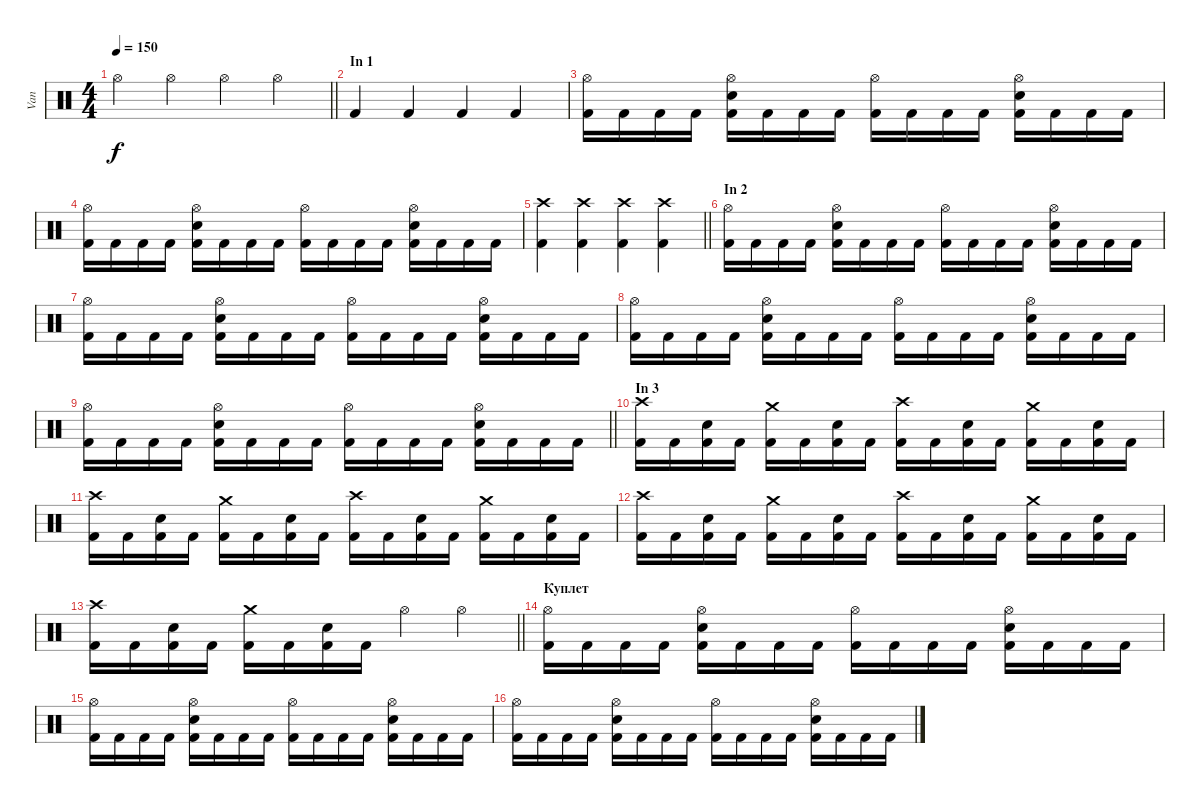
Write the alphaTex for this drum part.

\track ("Van" "Van") {instrument percussion}
\staff {score}
\articulation defaults
\ts (4 4)
\tempo 150
\clef neutral
\barLineRight lightlight
\ks c "Hi-Hat (open)".4{dy f} "Hi-Hat (open)".4 "Hi-Hat (open)".4 "Hi-Hat (open)".4
|
\section ("" "In 1")
"Kick (hit) 2".4 "Kick (hit) 2".4 "Kick (hit) 2".4 "Kick (hit) 2".4 |
("Kick (hit) 2" "Hi-Hat (open)").16 "Kick (hit) 2".16 "Kick (hit) 2".16 "Kick (hit) 2".16 ("Kick (hit) 2" "Hi-Hat (open)" "Electric Snare (hit)").16 "Kick (hit) 2".16 "Kick (hit) 2".16 "Kick (hit) 2".16 ("Kick (hit) 2" "Hi-Hat (open)").16 "Kick (hit) 2".16 "Kick (hit) 2".16 "Kick (hit) 2".16 ("Kick (hit) 2" "Hi-Hat (open)" "Electric Snare (hit)").16 "Kick (hit) 2".16 "Kick (hit) 2".16 "Kick (hit) 2".16 |
("Kick (hit) 2" "Hi-Hat (open)").16 "Kick (hit) 2".16 "Kick (hit) 2".16 "Kick (hit) 2".16 ("Kick (hit) 2" "Hi-Hat (open)" "Electric Snare (hit)").16 "Kick (hit) 2".16 "Kick (hit) 2".16 "Kick (hit) 2".16 ("Kick (hit) 2" "Hi-Hat (open)").16 "Kick (hit) 2".16 "Kick (hit) 2".16 "Kick (hit) 2".16 ("Kick (hit) 2" "Hi-Hat (open)" "Electric Snare (hit)").16 "Kick (hit) 2".16 "Kick (hit) 2".16 "Kick (hit) 2".16 |
\barLineRight lightlight
("Kick (hit) 2" "Crash high (hit)").4 ("Kick (hit) 2" "Crash high (hit)").4 ("Kick (hit) 2" "Crash high (hit)").4 ("Kick (hit) 2" "Crash high (hit)").4 |
\section ("" "In 2")
("Kick (hit) 2" "Hi-Hat (open)").16 "Kick (hit) 2".16 "Kick (hit) 2".16 "Kick (hit) 2".16 ("Kick (hit) 2" "Hi-Hat (open)" "Electric Snare (hit)").16 "Kick (hit) 2".16 "Kick (hit) 2".16 "Kick (hit) 2".16 ("Kick (hit) 2" "Hi-Hat (open)").16 "Kick (hit) 2".16 "Kick (hit) 2".16 "Kick (hit) 2".16 ("Kick (hit) 2" "Hi-Hat (open)" "Electric Snare (hit)").16 "Kick (hit) 2".16 "Kick (hit) 2".16 "Kick (hit) 2".16 |
("Kick (hit) 2" "Hi-Hat (open)").16 "Kick (hit) 2".16 "Kick (hit) 2".16 "Kick (hit) 2".16 ("Kick (hit) 2" "Hi-Hat (open)" "Electric Snare (hit)").16 "Kick (hit) 2".16 "Kick (hit) 2".16 "Kick (hit) 2".16 ("Kick (hit) 2" "Hi-Hat (open)").16 "Kick (hit) 2".16 "Kick (hit) 2".16 "Kick (hit) 2".16 ("Kick (hit) 2" "Hi-Hat (open)" "Electric Snare (hit)").16 "Kick (hit) 2".16 "Kick (hit) 2".16 "Kick (hit) 2".16 |
("Kick (hit) 2" "Hi-Hat (open)").16 "Kick (hit) 2".16 "Kick (hit) 2".16 "Kick (hit) 2".16 ("Kick (hit) 2" "Hi-Hat (open)" "Electric Snare (hit)").16 "Kick (hit) 2".16 "Kick (hit) 2".16 "Kick (hit) 2".16 ("Kick (hit) 2" "Hi-Hat (open)").16 "Kick (hit) 2".16 "Kick (hit) 2".16 "Kick (hit) 2".16 ("Kick (hit) 2" "Hi-Hat (open)" "Electric Snare (hit)").16 "Kick (hit) 2".16 "Kick (hit) 2".16 "Kick (hit) 2".16 |
\barLineRight lightlight
("Kick (hit) 2" "Hi-Hat (open)").16 "Kick (hit) 2".16 "Kick (hit) 2".16 "Kick (hit) 2".16 ("Kick (hit) 2" "Hi-Hat (open)" "Electric Snare (hit)").16 "Kick (hit) 2".16 "Kick (hit) 2".16 "Kick (hit) 2".16 ("Kick (hit) 2" "Hi-Hat (open)").16 "Kick (hit) 2".16 "Kick (hit) 2".16 "Kick (hit) 2".16 ("Kick (hit) 2" "Hi-Hat (open)" "Electric Snare (hit)").16 "Kick (hit) 2".16 "Kick (hit) 2".16 "Kick (hit) 2".16 |
\section ("" "In 3")
("Kick (hit) 2" "Crash high (hit)").16 "Kick (hit) 2".16 ("Kick (hit) 2" "Electric Snare (hit)").16 "Kick (hit) 2".16 ("Kick (hit) 2" "Crash medium (hit)").16 "Kick (hit) 2".16 ("Kick (hit) 2" "Electric Snare (hit)").16 "Kick (hit) 2".16 ("Kick (hit) 2" "Crash high (hit)").16 "Kick (hit) 2".16 ("Kick (hit) 2" "Electric Snare (hit)").16 "Kick (hit) 2".16 ("Kick (hit) 2" "Crash medium (hit)").16 "Kick (hit) 2".16 ("Kick (hit) 2" "Electric Snare (hit)").16 "Kick (hit) 2".16 |
("Kick (hit) 2" "Crash high (hit)").16 "Kick (hit) 2".16 ("Kick (hit) 2" "Electric Snare (hit)").16 "Kick (hit) 2".16 ("Kick (hit) 2" "Crash medium (hit)").16 "Kick (hit) 2".16 ("Kick (hit) 2" "Electric Snare (hit)").16 "Kick (hit) 2".16 ("Kick (hit) 2" "Crash high (hit)").16 "Kick (hit) 2".16 ("Kick (hit) 2" "Electric Snare (hit)").16 "Kick (hit) 2".16 ("Kick (hit) 2" "Crash medium (hit)").16 "Kick (hit) 2".16 ("Kick (hit) 2" "Electric Snare (hit)").16 "Kick (hit) 2".16 |
("Kick (hit) 2" "Crash high (hit)").16 "Kick (hit) 2".16 ("Kick (hit) 2" "Electric Snare (hit)").16 "Kick (hit) 2".16 ("Kick (hit) 2" "Crash medium (hit)").16 "Kick (hit) 2".16 ("Kick (hit) 2" "Electric Snare (hit)").16 "Kick (hit) 2".16 ("Kick (hit) 2" "Crash high (hit)").16 "Kick (hit) 2".16 ("Kick (hit) 2" "Electric Snare (hit)").16 "Kick (hit) 2".16 ("Kick (hit) 2" "Crash medium (hit)").16 "Kick (hit) 2".16 ("Kick (hit) 2" "Electric Snare (hit)").16 "Kick (hit) 2".16 |
\barLineRight lightlight
("Kick (hit) 2" "Crash high (hit)").16 "Kick (hit) 2".16 ("Kick (hit) 2" "Electric Snare (hit)").16 "Kick (hit) 2".16 ("Kick (hit) 2" "Crash medium (hit)").16 "Kick (hit) 2".16 ("Kick (hit) 2" "Electric Snare (hit)").16 "Kick (hit) 2".16 "Hi-Hat (open)".4 "Hi-Hat (open)".4 |
\section ("" "Куплет")
("Kick (hit) 2" "Hi-Hat (open)").16 "Kick (hit) 2".16 "Kick (hit) 2".16 "Kick (hit) 2".16 ("Kick (hit) 2" "Hi-Hat (open)" "Electric Snare (hit)").16 "Kick (hit) 2".16 "Kick (hit) 2".16 "Kick (hit) 2".16 ("Kick (hit) 2" "Hi-Hat (open)").16 "Kick (hit) 2".16 "Kick (hit) 2".16 "Kick (hit) 2".16 ("Kick (hit) 2" "Hi-Hat (open)" "Electric Snare (hit)").16 "Kick (hit) 2".16 "Kick (hit) 2".16 "Kick (hit) 2".16 |
("Kick (hit) 2" "Hi-Hat (open)").16 "Kick (hit) 2".16 "Kick (hit) 2".16 "Kick (hit) 2".16 ("Kick (hit) 2" "Hi-Hat (open)" "Electric Snare (hit)").16 "Kick (hit) 2".16 "Kick (hit) 2".16 "Kick (hit) 2".16 ("Kick (hit) 2" "Hi-Hat (open)").16 "Kick (hit) 2".16 "Kick (hit) 2".16 "Kick (hit) 2".16 ("Kick (hit) 2" "Hi-Hat (open)" "Electric Snare (hit)").16 "Kick (hit) 2".16 "Kick (hit) 2".16 "Kick (hit) 2".16 |
("Kick (hit) 2" "Hi-Hat (open)").16 "Kick (hit) 2".16 "Kick (hit) 2".16 "Kick (hit) 2".16 ("Kick (hit) 2" "Hi-Hat (open)" "Electric Snare (hit)").16 "Kick (hit) 2".16 "Kick (hit) 2".16 "Kick (hit) 2".16 ("Kick (hit) 2" "Hi-Hat (open)").16 "Kick (hit) 2".16 "Kick (hit) 2".16 "Kick (hit) 2".16 ("Kick (hit) 2" "Hi-Hat (open)" "Electric Snare (hit)").16 "Kick (hit) 2".16 "Kick (hit) 2".16 "Kick (hit) 2".16
